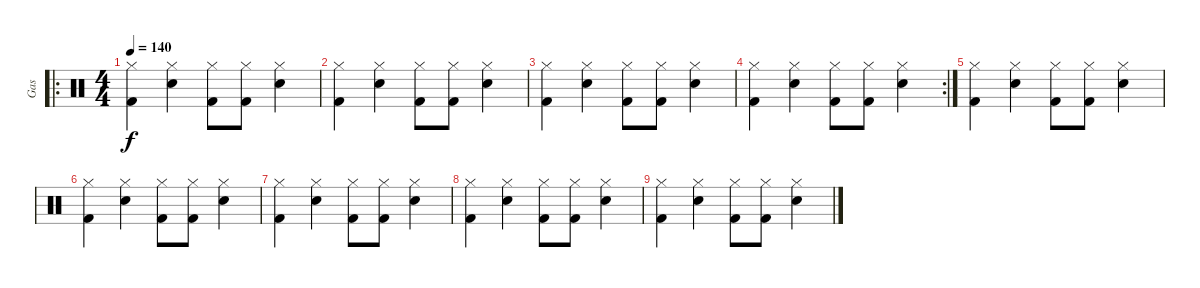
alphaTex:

\track ("Gas" "Gas") {instrument percussion}
\staff {score}
\articulation defaults
\ro
\ts (4 4)
\tempo 140
\clef neutral
\ks c
("Hi-Hat (closed)" "Kick (hit) 2").4{dy f} ("Hi-Hat (closed)" "Electric Snare (hit)").4 ("Hi-Hat (closed)" "Kick (hit) 2").8 ("Hi-Hat (closed)" "Kick (hit) 2").8 ("Hi-Hat (closed)" "Electric Snare (hit)").4 |
("Hi-Hat (closed)" "Kick (hit) 2").4 ("Hi-Hat (closed)" "Electric Snare (hit)").4 ("Hi-Hat (closed)" "Kick (hit) 2").8 ("Hi-Hat (closed)" "Kick (hit) 2").8 ("Hi-Hat (closed)" "Electric Snare (hit)").4 |
("Hi-Hat (closed)" "Kick (hit) 2").4 ("Hi-Hat (closed)" "Electric Snare (hit)").4 ("Hi-Hat (closed)" "Kick (hit) 2").8 ("Hi-Hat (closed)" "Kick (hit) 2").8 ("Hi-Hat (closed)" "Electric Snare (hit)").4 |
\rc 2
("Hi-Hat (closed)" "Kick (hit) 2").4 ("Hi-Hat (closed)" "Electric Snare (hit)").4 ("Hi-Hat (closed)" "Kick (hit) 2").8 ("Hi-Hat (closed)" "Kick (hit) 2").8 ("Hi-Hat (closed)" "Electric Snare (hit)").4 |
("Hi-Hat (closed)" "Kick (hit) 2").4 ("Hi-Hat (closed)" "Electric Snare (hit)").4 ("Hi-Hat (closed)" "Kick (hit) 2").8 ("Hi-Hat (closed)" "Kick (hit) 2").8 ("Hi-Hat (closed)" "Electric Snare (hit)").4 |
("Hi-Hat (closed)" "Kick (hit) 2").4 ("Hi-Hat (closed)" "Electric Snare (hit)").4 ("Hi-Hat (closed)" "Kick (hit) 2").8 ("Hi-Hat (closed)" "Kick (hit) 2").8 ("Hi-Hat (closed)" "Electric Snare (hit)").4 |
("Hi-Hat (closed)" "Kick (hit) 2").4 ("Hi-Hat (closed)" "Electric Snare (hit)").4 ("Hi-Hat (closed)" "Kick (hit) 2").8 ("Hi-Hat (closed)" "Kick (hit) 2").8 ("Hi-Hat (closed)" "Electric Snare (hit)").4 |
("Hi-Hat (closed)" "Kick (hit) 2").4 ("Hi-Hat (closed)" "Electric Snare (hit)").4 ("Hi-Hat (closed)" "Kick (hit) 2").8 ("Hi-Hat (closed)" "Kick (hit) 2").8 ("Hi-Hat (closed)" "Electric Snare (hit)").4 |
("Hi-Hat (closed)" "Kick (hit) 2").4 ("Hi-Hat (closed)" "Electric Snare (hit)").4 ("Hi-Hat (closed)" "Kick (hit) 2").8 ("Hi-Hat (closed)" "Kick (hit) 2").8 ("Hi-Hat (closed)" "Electric Snare (hit)").4
